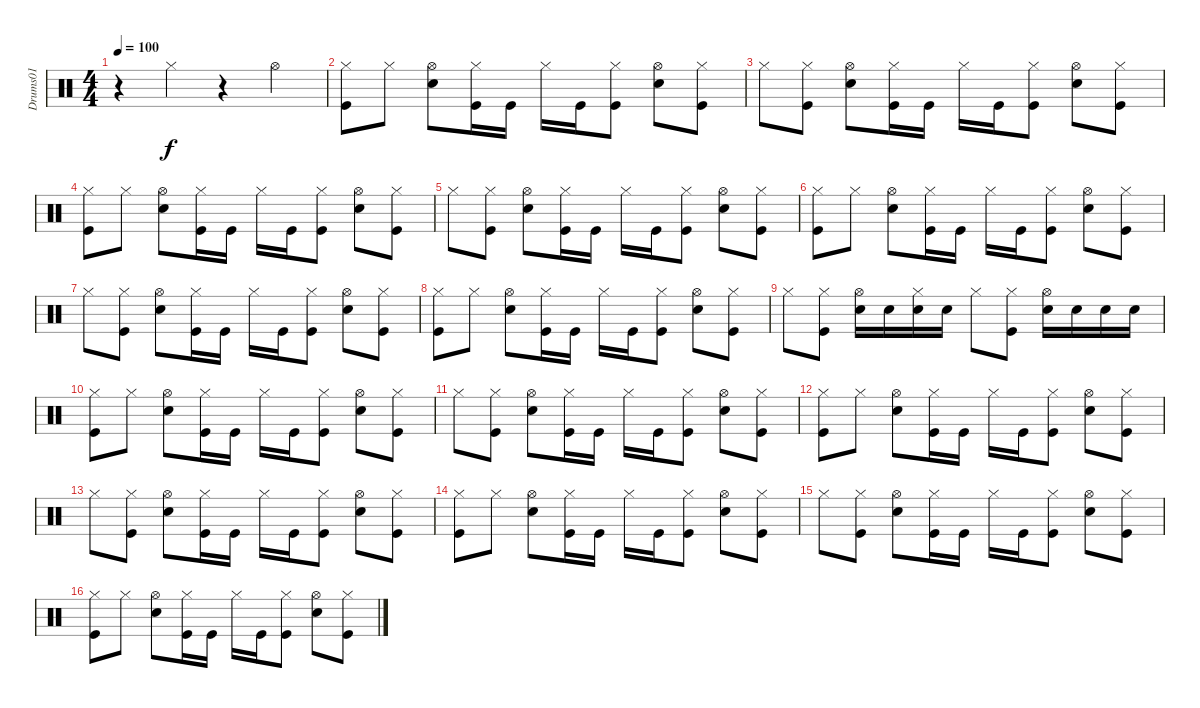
\track ("Drums01" "Drums01") {instrument percussion}
\staff {score}
\articulation defaults
\ts (4 4)
\tempo 100
\clef neutral
\ks c
r.4{dy f} "Hi-Hat (closed)".4 r.4 "Hi-Hat (open)".4 |
("Hi-Hat (closed)" "Kick (hit)").8 "Hi-Hat (closed)".8 ("Hi-Hat (open)" "Snare (hit) 2").8 ("Hi-Hat (closed)" "Kick (hit)").16 "Kick (hit)".16 "Hi-Hat (closed)".16 "Kick (hit)".16 ("Hi-Hat (closed)" "Kick (hit)").8 ("Hi-Hat (open)" "Snare (hit) 2").8 ("Hi-Hat (closed)" "Kick (hit)").8 |
"Hi-Hat (closed)".8 ("Hi-Hat (closed)" "Kick (hit)").8 ("Hi-Hat (open)" "Snare (hit) 2").8 ("Hi-Hat (closed)" "Kick (hit)").16 "Kick (hit)".16 "Hi-Hat (closed)".16 "Kick (hit)".16 ("Hi-Hat (closed)" "Kick (hit)").8 ("Hi-Hat (open)" "Snare (hit) 2").8 ("Hi-Hat (closed)" "Kick (hit)").8 |
("Hi-Hat (closed)" "Kick (hit)").8 "Hi-Hat (closed)".8 ("Hi-Hat (open)" "Snare (hit) 2").8 ("Hi-Hat (closed)" "Kick (hit)").16 "Kick (hit)".16 "Hi-Hat (closed)".16 "Kick (hit)".16 ("Hi-Hat (closed)" "Kick (hit)").8 ("Hi-Hat (open)" "Snare (hit) 2").8 ("Hi-Hat (closed)" "Kick (hit)").8 |
"Hi-Hat (closed)".8 ("Hi-Hat (closed)" "Kick (hit)").8 ("Hi-Hat (open)" "Snare (hit) 2").8 ("Hi-Hat (closed)" "Kick (hit)").16 "Kick (hit)".16 "Hi-Hat (closed)".16 "Kick (hit)".16 ("Hi-Hat (closed)" "Kick (hit)").8 ("Hi-Hat (open)" "Snare (hit) 2").8 ("Hi-Hat (closed)" "Kick (hit)").8 |
("Hi-Hat (closed)" "Kick (hit)").8 "Hi-Hat (closed)".8 ("Hi-Hat (open)" "Snare (hit) 2").8 ("Hi-Hat (closed)" "Kick (hit)").16 "Kick (hit)".16 "Hi-Hat (closed)".16 "Kick (hit)".16 ("Hi-Hat (closed)" "Kick (hit)").8 ("Hi-Hat (open)" "Snare (hit) 2").8 ("Hi-Hat (closed)" "Kick (hit)").8 |
"Hi-Hat (closed)".8 ("Hi-Hat (closed)" "Kick (hit)").8 ("Hi-Hat (open)" "Snare (hit) 2").8 ("Hi-Hat (closed)" "Kick (hit)").16 "Kick (hit)".16 "Hi-Hat (closed)".16 "Kick (hit)".16 ("Hi-Hat (closed)" "Kick (hit)").8 ("Hi-Hat (open)" "Snare (hit) 2").8 ("Hi-Hat (closed)" "Kick (hit)").8 |
("Hi-Hat (closed)" "Kick (hit)").8 "Hi-Hat (closed)".8 ("Hi-Hat (open)" "Snare (hit) 2").8 ("Hi-Hat (closed)" "Kick (hit)").16 "Kick (hit)".16 "Hi-Hat (closed)".16 "Kick (hit)".16 ("Hi-Hat (closed)" "Kick (hit)").8 ("Hi-Hat (open)" "Snare (hit) 2").8 ("Hi-Hat (closed)" "Kick (hit)").8 |
"Hi-Hat (closed)".8 ("Hi-Hat (closed)" "Kick (hit)").8 ("Hi-Hat (open)" "Snare (hit) 2").16 "Snare (hit) 2".16 ("Hi-Hat (closed)" "Snare (hit) 2").16 "Snare (hit) 2".16 "Hi-Hat (closed)".8 ("Hi-Hat (closed)" "Kick (hit)").8 ("Hi-Hat (open)" "Snare (hit) 2").16 "Snare (hit) 2".16 "Snare (hit) 2".16 "Snare (hit) 2".16 |
("Hi-Hat (closed)" "Kick (hit)").8 "Hi-Hat (closed)".8 ("Hi-Hat (open)" "Snare (hit) 2").8 ("Hi-Hat (closed)" "Kick (hit)").16 "Kick (hit)".16 "Hi-Hat (closed)".16 "Kick (hit)".16 ("Hi-Hat (closed)" "Kick (hit)").8 ("Hi-Hat (open)" "Snare (hit) 2").8 ("Hi-Hat (closed)" "Kick (hit)").8 |
"Hi-Hat (closed)".8 ("Hi-Hat (closed)" "Kick (hit)").8 ("Hi-Hat (open)" "Snare (hit) 2").8 ("Hi-Hat (closed)" "Kick (hit)").16 "Kick (hit)".16 "Hi-Hat (closed)".16 "Kick (hit)".16 ("Hi-Hat (closed)" "Kick (hit)").8 ("Hi-Hat (open)" "Snare (hit) 2").8 ("Hi-Hat (closed)" "Kick (hit)").8 |
("Hi-Hat (closed)" "Kick (hit)").8 "Hi-Hat (closed)".8 ("Hi-Hat (open)" "Snare (hit) 2").8 ("Hi-Hat (closed)" "Kick (hit)").16 "Kick (hit)".16 "Hi-Hat (closed)".16 "Kick (hit)".16 ("Hi-Hat (closed)" "Kick (hit)").8 ("Hi-Hat (open)" "Snare (hit) 2").8 ("Hi-Hat (closed)" "Kick (hit)").8 |
"Hi-Hat (closed)".8 ("Hi-Hat (closed)" "Kick (hit)").8 ("Hi-Hat (open)" "Snare (hit) 2").8 ("Hi-Hat (closed)" "Kick (hit)").16 "Kick (hit)".16 "Hi-Hat (closed)".16 "Kick (hit)".16 ("Hi-Hat (closed)" "Kick (hit)").8 ("Hi-Hat (open)" "Snare (hit) 2").8 ("Hi-Hat (closed)" "Kick (hit)").8 |
("Hi-Hat (closed)" "Kick (hit)").8 "Hi-Hat (closed)".8 ("Hi-Hat (open)" "Snare (hit) 2").8 ("Hi-Hat (closed)" "Kick (hit)").16 "Kick (hit)".16 "Hi-Hat (closed)".16 "Kick (hit)".16 ("Hi-Hat (closed)" "Kick (hit)").8 ("Hi-Hat (open)" "Snare (hit) 2").8 ("Hi-Hat (closed)" "Kick (hit)").8 |
"Hi-Hat (closed)".8 ("Hi-Hat (closed)" "Kick (hit)").8 ("Hi-Hat (open)" "Snare (hit) 2").8 ("Hi-Hat (closed)" "Kick (hit)").16 "Kick (hit)".16 "Hi-Hat (closed)".16 "Kick (hit)".16 ("Hi-Hat (closed)" "Kick (hit)").8 ("Hi-Hat (open)" "Snare (hit) 2").8 ("Hi-Hat (closed)" "Kick (hit)").8 |
("Hi-Hat (closed)" "Kick (hit)").8 "Hi-Hat (closed)".8 ("Hi-Hat (open)" "Snare (hit) 2").8 ("Hi-Hat (closed)" "Kick (hit)").16 "Kick (hit)".16 "Hi-Hat (closed)".16 "Kick (hit)".16 ("Hi-Hat (closed)" "Kick (hit)").8 ("Hi-Hat (open)" "Snare (hit) 2").8 ("Hi-Hat (closed)" "Kick (hit)").8
